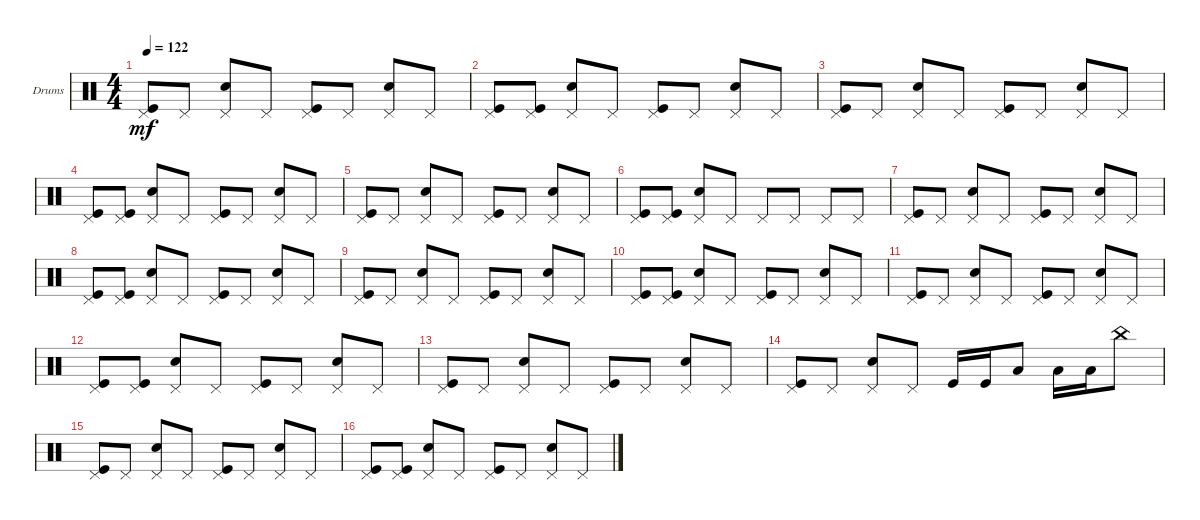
\defaultSystemsLayout 4
\bracketExtendMode groupsimilarinstruments
\firstSystemTrackNameOrientation horizontal
\otherSystemsTrackNameOrientation horizontal
\track ("Drums" "Drums") {instrument percussion}
\staff {score}
\articulation defaults
\ts (4 4)
\tempo 122
\clef neutral
\scale
0.333333
\ks c
("Pedal Hi-Hat (hit)" "Kick (hit)").8{dy mf} "Pedal Hi-Hat (hit)".8 ("Pedal Hi-Hat (hit)" "Snare (hit) 2").8 "Pedal Hi-Hat (hit)".8 ("Pedal Hi-Hat (hit)" "Kick (hit)").8 "Pedal Hi-Hat (hit)".8 ("Pedal Hi-Hat (hit)" "Snare (hit) 2").8 "Pedal Hi-Hat (hit)".8 |
\scale
0.333333 ("Pedal Hi-Hat (hit)" "Kick (hit)").8 ("Pedal Hi-Hat (hit)" "Kick (hit)").8 ("Pedal Hi-Hat (hit)" "Snare (hit) 2").8 "Pedal Hi-Hat (hit)".8 ("Pedal Hi-Hat (hit)" "Kick (hit)").8 "Pedal Hi-Hat (hit)".8 ("Pedal Hi-Hat (hit)" "Snare (hit) 2").8 "Pedal Hi-Hat (hit)".8 |
\scale
0.333333 ("Pedal Hi-Hat (hit)" "Kick (hit)").8 "Pedal Hi-Hat (hit)".8 ("Pedal Hi-Hat (hit)" "Snare (hit) 2").8 "Pedal Hi-Hat (hit)".8 ("Pedal Hi-Hat (hit)" "Kick (hit)").8 "Pedal Hi-Hat (hit)".8 ("Pedal Hi-Hat (hit)" "Snare (hit) 2").8 "Pedal Hi-Hat (hit)".8 |
\scale
0.333333 ("Pedal Hi-Hat (hit)" "Kick (hit)").8 ("Pedal Hi-Hat (hit)" "Kick (hit)").8 ("Pedal Hi-Hat (hit)" "Snare (hit) 2").8 "Pedal Hi-Hat (hit)".8 ("Pedal Hi-Hat (hit)" "Kick (hit)").8 "Pedal Hi-Hat (hit)".8 ("Pedal Hi-Hat (hit)" "Snare (hit) 2").8 "Pedal Hi-Hat (hit)".8 |
\scale
0.333333 ("Pedal Hi-Hat (hit)" "Kick (hit)").8 "Pedal Hi-Hat (hit)".8 ("Pedal Hi-Hat (hit)" "Snare (hit) 2").8 "Pedal Hi-Hat (hit)".8 ("Pedal Hi-Hat (hit)" "Kick (hit)").8 "Pedal Hi-Hat (hit)".8 ("Pedal Hi-Hat (hit)" "Snare (hit) 2").8 "Pedal Hi-Hat (hit)".8 |
\scale
0.333333 ("Pedal Hi-Hat (hit)" "Kick (hit)").8 ("Pedal Hi-Hat (hit)" "Kick (hit)").8 ("Pedal Hi-Hat (hit)" "Snare (hit) 2").8 "Pedal Hi-Hat (hit)".8 "Pedal Hi-Hat (hit)".8 "Pedal Hi-Hat (hit)".8 "Pedal Hi-Hat (hit)".8 "Pedal Hi-Hat (hit)".8 |
\scale
0.333333 ("Pedal Hi-Hat (hit)" "Kick (hit)").8 "Pedal Hi-Hat (hit)".8 ("Pedal Hi-Hat (hit)" "Snare (hit) 2").8 "Pedal Hi-Hat (hit)".8 ("Pedal Hi-Hat (hit)" "Kick (hit)").8 "Pedal Hi-Hat (hit)".8 ("Pedal Hi-Hat (hit)" "Snare (hit) 2").8 "Pedal Hi-Hat (hit)".8 |
\scale
0.333333 ("Pedal Hi-Hat (hit)" "Kick (hit)").8 ("Pedal Hi-Hat (hit)" "Kick (hit)").8 ("Pedal Hi-Hat (hit)" "Snare (hit) 2").8 "Pedal Hi-Hat (hit)".8 ("Pedal Hi-Hat (hit)" "Kick (hit)").8 "Pedal Hi-Hat (hit)".8 ("Pedal Hi-Hat (hit)" "Snare (hit) 2").8 "Pedal Hi-Hat (hit)".8 |
\scale
0.333333 ("Pedal Hi-Hat (hit)" "Kick (hit)").8 "Pedal Hi-Hat (hit)".8 ("Pedal Hi-Hat (hit)" "Snare (hit) 2").8 "Pedal Hi-Hat (hit)".8 ("Pedal Hi-Hat (hit)" "Kick (hit)").8 "Pedal Hi-Hat (hit)".8 ("Pedal Hi-Hat (hit)" "Snare (hit) 2").8 "Pedal Hi-Hat (hit)".8 |
\scale
0.333333 ("Pedal Hi-Hat (hit)" "Kick (hit)").8 ("Pedal Hi-Hat (hit)" "Kick (hit)").8 ("Pedal Hi-Hat (hit)" "Snare (hit) 2").8 "Pedal Hi-Hat (hit)".8 ("Pedal Hi-Hat (hit)" "Kick (hit)").8 "Pedal Hi-Hat (hit)".8 ("Pedal Hi-Hat (hit)" "Snare (hit) 2").8 "Pedal Hi-Hat (hit)".8 |
\scale
0.333333 ("Pedal Hi-Hat (hit)" "Kick (hit)").8 "Pedal Hi-Hat (hit)".8 ("Pedal Hi-Hat (hit)" "Snare (hit) 2").8 "Pedal Hi-Hat (hit)".8 ("Pedal Hi-Hat (hit)" "Kick (hit)").8 "Pedal Hi-Hat (hit)".8 ("Pedal Hi-Hat (hit)" "Snare (hit) 2").8 "Pedal Hi-Hat (hit)".8 |
("Pedal Hi-Hat (hit)" "Kick (hit)").8 ("Pedal Hi-Hat (hit)" "Kick (hit)").8 ("Pedal Hi-Hat (hit)" "Snare (hit) 2").8 "Pedal Hi-Hat (hit)".8 ("Pedal Hi-Hat (hit)" "Kick (hit)").8 "Pedal Hi-Hat (hit)".8 ("Pedal Hi-Hat (hit)" "Snare (hit) 2").8 "Pedal Hi-Hat (hit)".8 |
("Pedal Hi-Hat (hit)" "Kick (hit)").8 "Pedal Hi-Hat (hit)".8 ("Pedal Hi-Hat (hit)" "Snare (hit) 2").8 "Pedal Hi-Hat (hit)".8 ("Pedal Hi-Hat (hit)" "Kick (hit)").8 "Pedal Hi-Hat (hit)".8 ("Pedal Hi-Hat (hit)" "Snare (hit) 2").8 "Pedal Hi-Hat (hit)".8 |
("Pedal Hi-Hat (hit)" "Kick (hit)").8 "Pedal Hi-Hat (hit)".8 ("Pedal Hi-Hat (hit)" "Snare (hit) 2").8 "Pedal Hi-Hat (hit)".8 "Kick (hit)".16 "Kick (hit)".16 "Low Tom (hit)".8 "Low Tom (hit)".16 "Low Tom (hit)".16 "China (hit)".8 |
\scale
0.333333 ("Pedal Hi-Hat (hit)" "Kick (hit)").8 "Pedal Hi-Hat (hit)".8 ("Pedal Hi-Hat (hit)" "Snare (hit) 2").8 "Pedal Hi-Hat (hit)".8 ("Pedal Hi-Hat (hit)" "Kick (hit)").8 "Pedal Hi-Hat (hit)".8 ("Pedal Hi-Hat (hit)" "Snare (hit) 2").8 "Pedal Hi-Hat (hit)".8 |
\scale
0.333333 ("Pedal Hi-Hat (hit)" "Kick (hit)").8 ("Pedal Hi-Hat (hit)" "Kick (hit)").8 ("Pedal Hi-Hat (hit)" "Snare (hit) 2").8 "Pedal Hi-Hat (hit)".8 ("Pedal Hi-Hat (hit)" "Kick (hit)").8 "Pedal Hi-Hat (hit)".8 ("Pedal Hi-Hat (hit)" "Snare (hit) 2").8 "Pedal Hi-Hat (hit)".8
